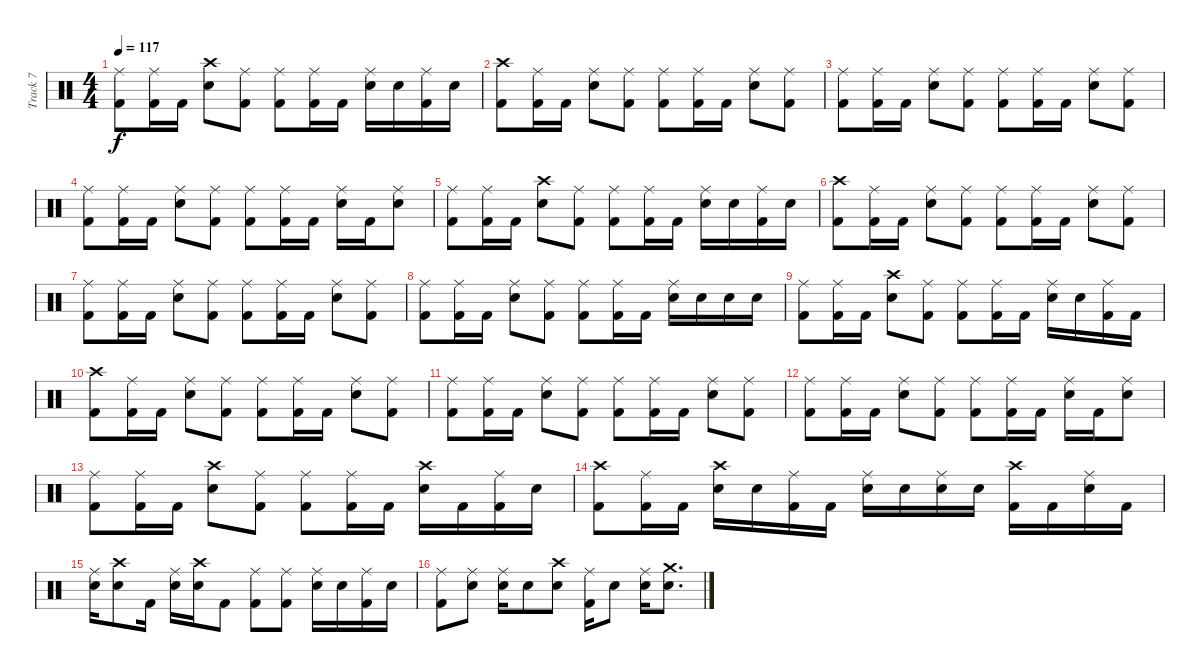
\track ("Track 7" "Track 7") {instrument percussion}
\staff {score}
\articulation defaults
\ts (4 4)
\tempo 117
\clef neutral
\ks c
("Ride (middle)" "Kick (hit) 2").8{dy f} ("Ride (middle)" "Kick (hit) 2").16 "Kick (hit) 2".16 ("Crash high (hit)" "Snare (hit) 2").8 ("Ride (middle)" "Kick (hit) 2").8 ("Ride (middle)" "Kick (hit) 2").8 ("Ride (middle)" "Kick (hit) 2").16 "Kick (hit) 2".16 ("Ride (middle)" "Snare (hit) 2").16 "Snare (hit) 2".16 ("Ride (middle)" "Kick (hit) 2").16 "Snare (hit) 2".16 |
("Crash high (hit)" "Kick (hit) 2").8 ("Ride (middle)" "Kick (hit) 2").16 "Kick (hit) 2".16 ("Ride (middle)" "Snare (hit) 2").8 ("Ride (middle)" "Kick (hit) 2").8 ("Ride (middle)" "Kick (hit) 2").8 ("Ride (middle)" "Kick (hit) 2").16 "Kick (hit) 2".16 ("Ride (middle)" "Snare (hit) 2").8 ("Ride (middle)" "Kick (hit) 2").8 |
("Ride (middle)" "Kick (hit) 2").8 ("Ride (middle)" "Kick (hit) 2").16 "Kick (hit) 2".16 ("Ride (middle)" "Snare (hit) 2").8 ("Ride (middle)" "Kick (hit) 2").8 ("Ride (middle)" "Kick (hit) 2").8 ("Ride (middle)" "Kick (hit) 2").16 "Kick (hit) 2".16 ("Ride (middle)" "Snare (hit) 2").8 ("Ride (middle)" "Kick (hit) 2").8 |
("Ride (middle)" "Kick (hit) 2").8 ("Ride (middle)" "Kick (hit) 2").16 "Kick (hit) 2".16 ("Ride (middle)" "Snare (hit) 2").8 ("Ride (middle)" "Kick (hit) 2").8 ("Ride (middle)" "Kick (hit) 2").8 ("Ride (middle)" "Kick (hit) 2").16 "Kick (hit) 2".16 ("Ride (middle)" "Snare (hit) 2").16 "Kick (hit) 2".16 ("Ride (middle)" "Snare (hit) 2").8 |
("Ride (middle)" "Kick (hit) 2").8 ("Ride (middle)" "Kick (hit) 2").16 "Kick (hit) 2".16 ("Crash high (hit)" "Snare (hit) 2").8 ("Ride (middle)" "Kick (hit) 2").8 ("Ride (middle)" "Kick (hit) 2").8 ("Ride (middle)" "Kick (hit) 2").16 "Kick (hit) 2".16 ("Ride (middle)" "Snare (hit) 2").16 "Snare (hit) 2".16 ("Ride (middle)" "Kick (hit) 2").16 "Snare (hit) 2".16 |
("Crash high (hit)" "Kick (hit) 2").8 ("Ride (middle)" "Kick (hit) 2").16 "Kick (hit) 2".16 ("Ride (middle)" "Snare (hit) 2").8 ("Ride (middle)" "Kick (hit) 2").8 ("Ride (middle)" "Kick (hit) 2").8 ("Ride (middle)" "Kick (hit) 2").16 "Kick (hit) 2".16 ("Ride (middle)" "Snare (hit) 2").8 ("Ride (middle)" "Kick (hit) 2").8 |
("Ride (middle)" "Kick (hit) 2").8 ("Ride (middle)" "Kick (hit) 2").16 "Kick (hit) 2".16 ("Ride (middle)" "Snare (hit) 2").8 ("Ride (middle)" "Kick (hit) 2").8 ("Ride (middle)" "Kick (hit) 2").8 ("Ride (middle)" "Kick (hit) 2").16 "Kick (hit) 2".16 ("Ride (middle)" "Snare (hit) 2").8 ("Ride (middle)" "Kick (hit) 2").8 |
("Ride (middle)" "Kick (hit) 2").8 ("Ride (middle)" "Kick (hit) 2").16 "Kick (hit) 2".16 ("Ride (middle)" "Snare (hit) 2").8 ("Ride (middle)" "Kick (hit) 2").8 ("Ride (middle)" "Kick (hit) 2").8 ("Ride (middle)" "Kick (hit) 2").16 "Kick (hit) 2".16 ("Ride (middle)" "Snare (hit) 2").16 "Snare (hit) 2".16 "Snare (hit) 2".16 "Snare (hit) 2".16 |
("Ride (middle)" "Kick (hit) 2").8 ("Ride (middle)" "Kick (hit) 2").16 "Kick (hit) 2".16 ("Crash high (hit)" "Snare (hit) 2").8 ("Ride (middle)" "Kick (hit) 2").8 ("Ride (middle)" "Kick (hit) 2").8 ("Ride (middle)" "Kick (hit) 2").16 "Kick (hit) 2".16 ("Ride (middle)" "Snare (hit) 2").16 "Snare (hit) 2".16 ("Ride (middle)" "Kick (hit) 2").16 "Kick (hit) 2".16 |
("Crash high (hit)" "Kick (hit) 2").8 ("Ride (middle)" "Kick (hit) 2").16 "Kick (hit) 2".16 ("Ride (middle)" "Snare (hit) 2").8 ("Ride (middle)" "Kick (hit) 2").8 ("Ride (middle)" "Kick (hit) 2").8 ("Ride (middle)" "Kick (hit) 2").16 "Kick (hit) 2".16 ("Ride (middle)" "Snare (hit) 2").8 ("Ride (middle)" "Kick (hit) 2").8 |
("Ride (middle)" "Kick (hit) 2").8 ("Ride (middle)" "Kick (hit) 2").16 "Kick (hit) 2".16 ("Ride (middle)" "Snare (hit) 2").8 ("Ride (middle)" "Kick (hit) 2").8 ("Ride (middle)" "Kick (hit) 2").8 ("Ride (middle)" "Kick (hit) 2").16 "Kick (hit) 2".16 ("Ride (middle)" "Snare (hit) 2").8 ("Ride (middle)" "Kick (hit) 2").8 |
("Ride (middle)" "Kick (hit) 2").8 ("Ride (middle)" "Kick (hit) 2").16 "Kick (hit) 2".16 ("Ride (middle)" "Snare (hit) 2").8 ("Ride (middle)" "Kick (hit) 2").8 ("Ride (middle)" "Kick (hit) 2").8 ("Ride (middle)" "Kick (hit) 2").16 "Kick (hit) 2".16 ("Ride (middle)" "Snare (hit) 2").16 "Kick (hit) 2".16 ("Ride (middle)" "Snare (hit) 2").8 |
("Ride (middle)" "Kick (hit) 2").8 ("Ride (middle)" "Kick (hit) 2").16 "Kick (hit) 2".16 ("Crash high (hit)" "Snare (hit) 2").8 ("Ride (middle)" "Kick (hit) 2").8 ("Ride (middle)" "Kick (hit) 2").8 ("Ride (middle)" "Kick (hit) 2").16 "Kick (hit) 2".16 ("Crash high (hit)" "Snare (hit) 2").16 "Kick (hit) 2".16 ("Ride (middle)" "Kick (hit) 2").16 "Snare (hit) 2".16 |
("Crash high (hit)" "Kick (hit) 2").8 ("Ride (middle)" "Kick (hit) 2").16 "Kick (hit) 2".16 ("Crash high (hit)" "Snare (hit) 2").16 "Snare (hit) 2".16 ("Ride (middle)" "Kick (hit) 2").16 "Kick (hit) 2".16 ("Ride (middle)" "Snare (hit) 2").16 "Snare (hit) 2".16 ("Ride (middle)" "Snare (hit) 2").16 "Snare (hit) 2".16 ("Crash high (hit)" "Kick (hit) 2").16 "Kick (hit) 2".16 ("Ride (middle)" "Snare (hit) 2").16 "Kick (hit) 2".16 |
("Ride (middle)" "Snare (hit) 2").16 ("Crash high (hit)" "Snare (hit) 2").8 "Kick (hit) 2".16 ("Ride (middle)" "Snare (hit) 2").16 ("Crash high (hit)" "Snare (hit) 2").16 "Kick (hit) 2".8 ("Ride (middle)" "Kick (hit) 2").8 ("Ride (middle)" "Kick (hit) 2").8 ("Ride (middle)" "Snare (hit) 2").16 "Snare (hit) 2".16 ("Ride (middle)" "Kick (hit) 2").16 "Snare (hit) 2".16 |
("Ride (middle)" "Kick (hit) 2").8 ("Ride (middle)" "Snare (hit) 2").8 ("Ride (middle)" "Snare (hit) 2").16 "Snare (hit) 2".8 ("Crash high (hit)" "Snare (hit) 2").8 ("Ride (middle)" "Kick (hit) 2").16 "Snare (hit) 2".8 ("Ride (middle)" "Snare (hit) 2").16 ("Crash medium (hit)" "Snare (hit) 2").8{d}
